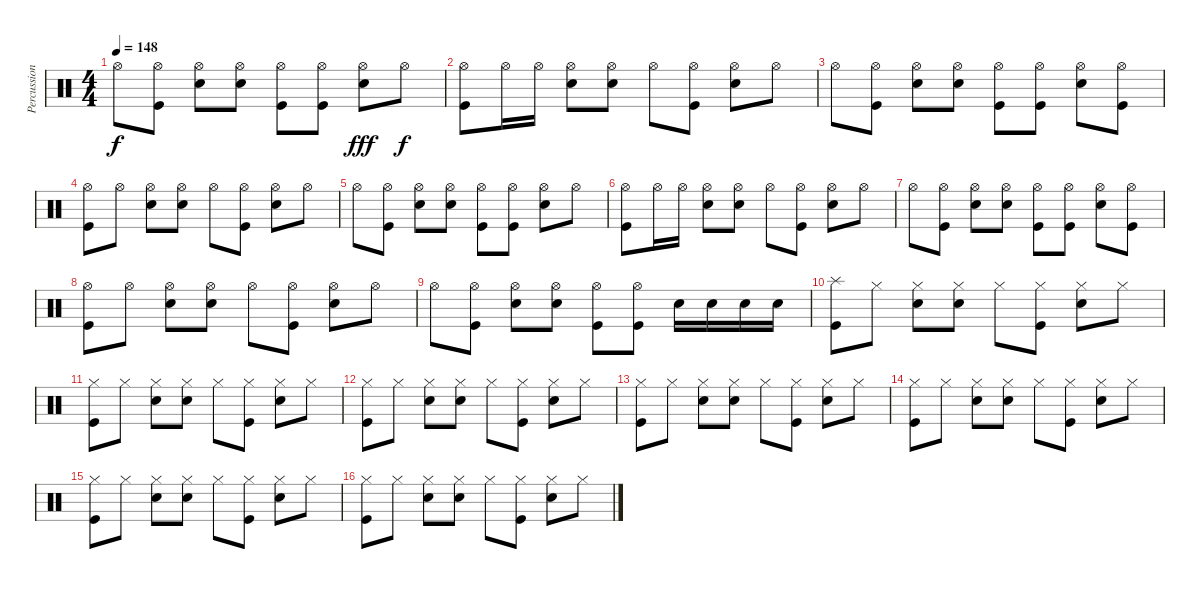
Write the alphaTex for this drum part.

\track ("Percussion" "Percussion") {instrument percussion}
\staff {score}
\articulation defaults
\ts (4 4)
\tempo 148
\clef neutral
\ks c "Hi-Hat (open)".8{dy f}
("Hi-Hat (open)" "Kick (hit)").8 ("Hi-Hat (open)" "Snare (hit) 2").8 ("Hi-Hat (open)" "Snare (hit) 2").8 ("Hi-Hat (open)" "Kick (hit)").8 ("Hi-Hat (open)" "Kick (hit)").8 ("Hi-Hat (open)" "Snare (hit) 2").8{dy fff} "Hi-Hat (open)".8{dy f} |
("Hi-Hat (open)" "Kick (hit)").8 "Hi-Hat (open)".16 "Hi-Hat (open)".16 ("Hi-Hat (open)" "Snare (hit) 2").8 ("Hi-Hat (open)" "Snare (hit) 2").8 "Hi-Hat (open)".8 ("Hi-Hat (open)" "Kick (hit)").8 ("Hi-Hat (open)" "Snare (hit) 2").8 "Hi-Hat (open)".8 |
"Hi-Hat (open)".8 ("Hi-Hat (open)" "Kick (hit)").8 ("Hi-Hat (open)" "Snare (hit) 2").8 ("Hi-Hat (open)" "Snare (hit) 2").8 ("Hi-Hat (open)" "Kick (hit)").8 ("Hi-Hat (open)" "Kick (hit)").8 ("Hi-Hat (open)" "Snare (hit) 2").8 ("Hi-Hat (open)" "Kick (hit)").8 |
("Hi-Hat (open)" "Kick (hit)").8 "Hi-Hat (open)".8 ("Hi-Hat (open)" "Snare (hit) 2").8 ("Hi-Hat (open)" "Snare (hit) 2").8 "Hi-Hat (open)".8 ("Hi-Hat (open)" "Kick (hit)").8 ("Hi-Hat (open)" "Snare (hit) 2").8 "Hi-Hat (open)".8 |
"Hi-Hat (open)".8 ("Hi-Hat (open)" "Kick (hit)").8 ("Hi-Hat (open)" "Snare (hit) 2").8 ("Hi-Hat (open)" "Snare (hit) 2").8 ("Hi-Hat (open)" "Kick (hit)").8 ("Hi-Hat (open)" "Kick (hit)").8 ("Hi-Hat (open)" "Snare (hit) 2").8 "Hi-Hat (open)".8 |
("Hi-Hat (open)" "Kick (hit)").8 "Hi-Hat (open)".16 "Hi-Hat (open)".16 ("Hi-Hat (open)" "Snare (hit) 2").8 ("Hi-Hat (open)" "Snare (hit) 2").8 "Hi-Hat (open)".8 ("Hi-Hat (open)" "Kick (hit)").8 ("Hi-Hat (open)" "Snare (hit) 2").8 "Hi-Hat (open)".8 |
"Hi-Hat (open)".8 ("Hi-Hat (open)" "Kick (hit)").8 ("Hi-Hat (open)" "Snare (hit) 2").8 ("Hi-Hat (open)" "Snare (hit) 2").8 ("Hi-Hat (open)" "Kick (hit)").8 ("Hi-Hat (open)" "Kick (hit)").8 ("Hi-Hat (open)" "Snare (hit) 2").8 ("Hi-Hat (open)" "Kick (hit)").8 |
("Hi-Hat (open)" "Kick (hit)").8 "Hi-Hat (open)".8 ("Hi-Hat (open)" "Snare (hit) 2").8 ("Hi-Hat (open)" "Snare (hit) 2").8 "Hi-Hat (open)".8 ("Hi-Hat (open)" "Kick (hit)").8 ("Hi-Hat (open)" "Snare (hit) 2").8 "Hi-Hat (open)".8 |
"Hi-Hat (open)".8 ("Hi-Hat (open)" "Kick (hit)").8 ("Hi-Hat (open)" "Snare (hit) 2").8 ("Hi-Hat (open)" "Snare (hit) 2").8 ("Hi-Hat (open)" "Kick (hit)").8 ("Hi-Hat (open)" "Kick (hit)").8 "Snare (hit) 2".16 "Snare (hit) 2".16 "Snare (hit) 2".16 "Snare (hit) 2".16 |
("Splash (hit)" "Kick (hit)").8 "Hi-Hat (closed)".8 ("Hi-Hat (closed)" "Snare (hit) 2").8 ("Hi-Hat (closed)" "Snare (hit) 2").8 "Hi-Hat (closed)".8 ("Hi-Hat (closed)" "Kick (hit)").8 ("Hi-Hat (closed)" "Snare (hit) 2").8 "Hi-Hat (closed)".8 |
("Hi-Hat (closed)" "Kick (hit)").8 "Hi-Hat (closed)".8 ("Hi-Hat (closed)" "Snare (hit) 2").8 ("Hi-Hat (closed)" "Snare (hit) 2").8 "Hi-Hat (closed)".8 ("Hi-Hat (closed)" "Kick (hit)").8 ("Hi-Hat (closed)" "Snare (hit) 2").8 "Hi-Hat (closed)".8 |
("Hi-Hat (closed)" "Kick (hit)").8 "Hi-Hat (closed)".8 ("Hi-Hat (closed)" "Snare (hit) 2").8 ("Hi-Hat (closed)" "Snare (hit) 2").8 "Hi-Hat (closed)".8 ("Hi-Hat (closed)" "Kick (hit)").8 ("Hi-Hat (closed)" "Snare (hit) 2").8 "Hi-Hat (closed)".8 |
("Hi-Hat (closed)" "Kick (hit)").8 "Hi-Hat (closed)".8 ("Hi-Hat (closed)" "Snare (hit) 2").8 ("Hi-Hat (closed)" "Snare (hit) 2").8 "Hi-Hat (closed)".8 ("Hi-Hat (closed)" "Kick (hit)").8 ("Hi-Hat (closed)" "Snare (hit) 2").8 "Hi-Hat (closed)".8 |
("Hi-Hat (closed)" "Kick (hit)").8 "Hi-Hat (closed)".8 ("Hi-Hat (closed)" "Snare (hit) 2").8 ("Hi-Hat (closed)" "Snare (hit) 2").8 "Hi-Hat (closed)".8 ("Hi-Hat (closed)" "Kick (hit)").8 ("Hi-Hat (closed)" "Snare (hit) 2").8 "Hi-Hat (closed)".8 |
("Hi-Hat (closed)" "Kick (hit)").8 "Hi-Hat (closed)".8 ("Hi-Hat (closed)" "Snare (hit) 2").8 ("Hi-Hat (closed)" "Snare (hit) 2").8 "Hi-Hat (closed)".8 ("Hi-Hat (closed)" "Kick (hit)").8 ("Hi-Hat (closed)" "Snare (hit) 2").8 "Hi-Hat (closed)".8 |
("Hi-Hat (closed)" "Kick (hit)").8 "Hi-Hat (closed)".8 ("Hi-Hat (closed)" "Snare (hit) 2").8 ("Hi-Hat (closed)" "Snare (hit) 2").8 "Hi-Hat (closed)".8 ("Hi-Hat (closed)" "Kick (hit)").8 ("Hi-Hat (closed)" "Snare (hit) 2").8 "Hi-Hat (closed)".8
